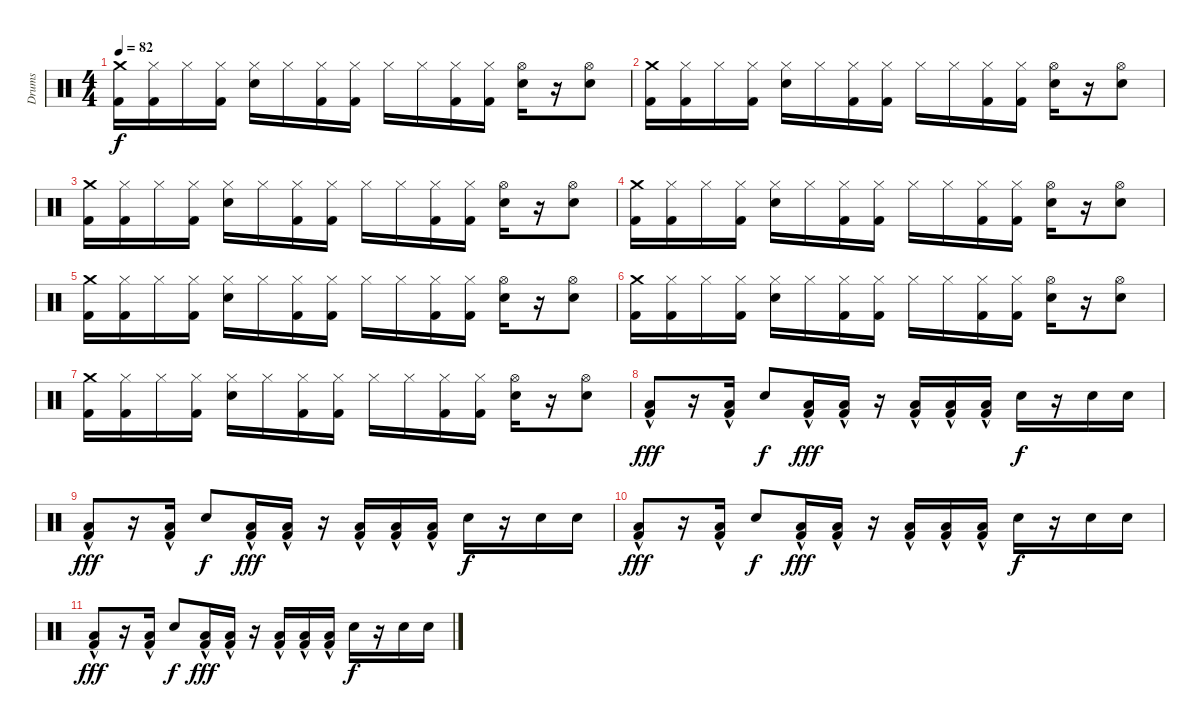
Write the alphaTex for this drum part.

\track ("Drums" "Drums") {instrument percussion}
\staff {score}
\articulation defaults
\ts (4 4)
\tempo 82
\clef neutral
\ks c
("Crash medium (hit)" "Kick (hit) 2").16{dy f} ("Hi-Hat (closed)" "Kick (hit) 2").16 "Hi-Hat (closed)".16 ("Hi-Hat (closed)" "Kick (hit) 2").16 ("Hi-Hat (closed)" "Snare (hit) 2").16 "Hi-Hat (closed)".16 ("Hi-Hat (closed)" "Kick (hit) 2").16 ("Hi-Hat (closed)" "Kick (hit) 2").16 "Hi-Hat (closed)".16 "Hi-Hat (closed)".16 ("Hi-Hat (closed)" "Kick (hit) 2").16 ("Hi-Hat (closed)" "Kick (hit) 2").16 ("Hi-Hat (open)" "Snare (hit) 2").16 r.16 ("Hi-Hat (open)" "Snare (hit) 2").8 |
("Crash medium (hit)" "Kick (hit) 2").16 ("Hi-Hat (closed)" "Kick (hit) 2").16 "Hi-Hat (closed)".16 ("Hi-Hat (closed)" "Kick (hit) 2").16 ("Hi-Hat (closed)" "Snare (hit) 2").16 "Hi-Hat (closed)".16 ("Hi-Hat (closed)" "Kick (hit) 2").16 ("Hi-Hat (closed)" "Kick (hit) 2").16 "Hi-Hat (closed)".16 "Hi-Hat (closed)".16 ("Hi-Hat (closed)" "Kick (hit) 2").16 ("Hi-Hat (closed)" "Kick (hit) 2").16 ("Hi-Hat (open)" "Snare (hit) 2").16 r.16 ("Hi-Hat (open)" "Snare (hit) 2").8 |
("Crash medium (hit)" "Kick (hit) 2").16 ("Hi-Hat (closed)" "Kick (hit) 2").16 "Hi-Hat (closed)".16 ("Hi-Hat (closed)" "Kick (hit) 2").16 ("Hi-Hat (closed)" "Snare (hit) 2").16 "Hi-Hat (closed)".16 ("Hi-Hat (closed)" "Kick (hit) 2").16 ("Hi-Hat (closed)" "Kick (hit) 2").16 "Hi-Hat (closed)".16 "Hi-Hat (closed)".16 ("Hi-Hat (closed)" "Kick (hit) 2").16 ("Hi-Hat (closed)" "Kick (hit) 2").16 ("Hi-Hat (open)" "Snare (hit) 2").16 r.16 ("Hi-Hat (open)" "Snare (hit) 2").8 |
("Crash medium (hit)" "Kick (hit) 2").16 ("Hi-Hat (closed)" "Kick (hit) 2").16 "Hi-Hat (closed)".16 ("Hi-Hat (closed)" "Kick (hit) 2").16 ("Hi-Hat (closed)" "Snare (hit) 2").16 "Hi-Hat (closed)".16 ("Hi-Hat (closed)" "Kick (hit) 2").16 ("Hi-Hat (closed)" "Kick (hit) 2").16 "Hi-Hat (closed)".16 "Hi-Hat (closed)".16 ("Hi-Hat (closed)" "Kick (hit) 2").16 ("Hi-Hat (closed)" "Kick (hit) 2").16 ("Hi-Hat (open)" "Snare (hit) 2").16 r.16 ("Hi-Hat (open)" "Snare (hit) 2").8 |
("Crash medium (hit)" "Kick (hit) 2").16 ("Hi-Hat (closed)" "Kick (hit) 2").16 "Hi-Hat (closed)".16 ("Hi-Hat (closed)" "Kick (hit) 2").16 ("Hi-Hat (closed)" "Snare (hit) 2").16 "Hi-Hat (closed)".16 ("Hi-Hat (closed)" "Kick (hit) 2").16 ("Hi-Hat (closed)" "Kick (hit) 2").16 "Hi-Hat (closed)".16 "Hi-Hat (closed)".16 ("Hi-Hat (closed)" "Kick (hit) 2").16 ("Hi-Hat (closed)" "Kick (hit) 2").16 ("Hi-Hat (open)" "Snare (hit) 2").16 r.16 ("Hi-Hat (open)" "Snare (hit) 2").8 |
("Crash medium (hit)" "Kick (hit) 2").16 ("Hi-Hat (closed)" "Kick (hit) 2").16 "Hi-Hat (closed)".16 ("Hi-Hat (closed)" "Kick (hit) 2").16 ("Hi-Hat (closed)" "Snare (hit) 2").16 "Hi-Hat (closed)".16 ("Hi-Hat (closed)" "Kick (hit) 2").16 ("Hi-Hat (closed)" "Kick (hit) 2").16 "Hi-Hat (closed)".16 "Hi-Hat (closed)".16 ("Hi-Hat (closed)" "Kick (hit) 2").16 ("Hi-Hat (closed)" "Kick (hit) 2").16 ("Hi-Hat (open)" "Snare (hit) 2").16 r.16 ("Hi-Hat (open)" "Snare (hit) 2").8 |
("Crash medium (hit)" "Kick (hit) 2").16 ("Hi-Hat (closed)" "Kick (hit) 2").16 "Hi-Hat (closed)".16 ("Hi-Hat (closed)" "Kick (hit) 2").16 ("Hi-Hat (closed)" "Snare (hit) 2").16 "Hi-Hat (closed)".16 ("Hi-Hat (closed)" "Kick (hit) 2").16 ("Hi-Hat (closed)" "Kick (hit) 2").16 "Hi-Hat (closed)".16 "Hi-Hat (closed)".16 ("Hi-Hat (closed)" "Kick (hit) 2").16 ("Hi-Hat (closed)" "Kick (hit) 2").16 ("Hi-Hat (open)" "Snare (hit) 2").16 r.16 ("Hi-Hat (open)" "Snare (hit) 2").8 |
("Low Floor Tom (hit)" "Kick (hit) 2"{hac}).8{dy fff} r.16 ("Low Floor Tom (hit)" "Kick (hit) 2"{hac}).16 "Snare (hit) 2".8{dy f} ("Low Floor Tom (hit)" "Kick (hit) 2"{hac}).16{dy fff} ("Low Floor Tom (hit)" "Kick (hit) 2"{hac}).16 r.16 ("Low Floor Tom (hit)" "Kick (hit) 2"{hac}).16 ("Low Floor Tom (hit)" "Kick (hit) 2"{hac}).16 ("Low Floor Tom (hit)" "Kick (hit) 2"{hac}).16 "Snare (hit) 2".16{dy f} r.16 "Snare (hit) 2".16 "Snare (hit) 2".16 |
("Low Floor Tom (hit)" "Kick (hit) 2"{hac}).8{dy fff} r.16 ("Low Floor Tom (hit)" "Kick (hit) 2"{hac}).16 "Snare (hit) 2".8{dy f} ("Low Floor Tom (hit)" "Kick (hit) 2"{hac}).16{dy fff} ("Low Floor Tom (hit)" "Kick (hit) 2"{hac}).16 r.16 ("Low Floor Tom (hit)" "Kick (hit) 2"{hac}).16 ("Low Floor Tom (hit)" "Kick (hit) 2"{hac}).16 ("Low Floor Tom (hit)" "Kick (hit) 2"{hac}).16 "Snare (hit) 2".16{dy f} r.16 "Snare (hit) 2".16 "Snare (hit) 2".16 |
("Low Floor Tom (hit)" "Kick (hit) 2"{hac}).8{dy fff} r.16 ("Low Floor Tom (hit)" "Kick (hit) 2"{hac}).16 "Snare (hit) 2".8{dy f} ("Low Floor Tom (hit)" "Kick (hit) 2"{hac}).16{dy fff} ("Low Floor Tom (hit)" "Kick (hit) 2"{hac}).16 r.16 ("Low Floor Tom (hit)" "Kick (hit) 2"{hac}).16 ("Low Floor Tom (hit)" "Kick (hit) 2"{hac}).16 ("Low Floor Tom (hit)" "Kick (hit) 2"{hac}).16 "Snare (hit) 2".16{dy f} r.16 "Snare (hit) 2".16 "Snare (hit) 2".16 |
("Low Floor Tom (hit)" "Kick (hit) 2"{hac}).8{dy fff} r.16 ("Low Floor Tom (hit)" "Kick (hit) 2"{hac}).16 "Snare (hit) 2".8{dy f} ("Low Floor Tom (hit)" "Kick (hit) 2"{hac}).16{dy fff} ("Low Floor Tom (hit)" "Kick (hit) 2"{hac}).16 r.16 ("Low Floor Tom (hit)" "Kick (hit) 2"{hac}).16 ("Low Floor Tom (hit)" "Kick (hit) 2"{hac}).16 ("Low Floor Tom (hit)" "Kick (hit) 2"{hac}).16 "Snare (hit) 2".16{dy f} r.16 "Snare (hit) 2".16 "Snare (hit) 2".16
